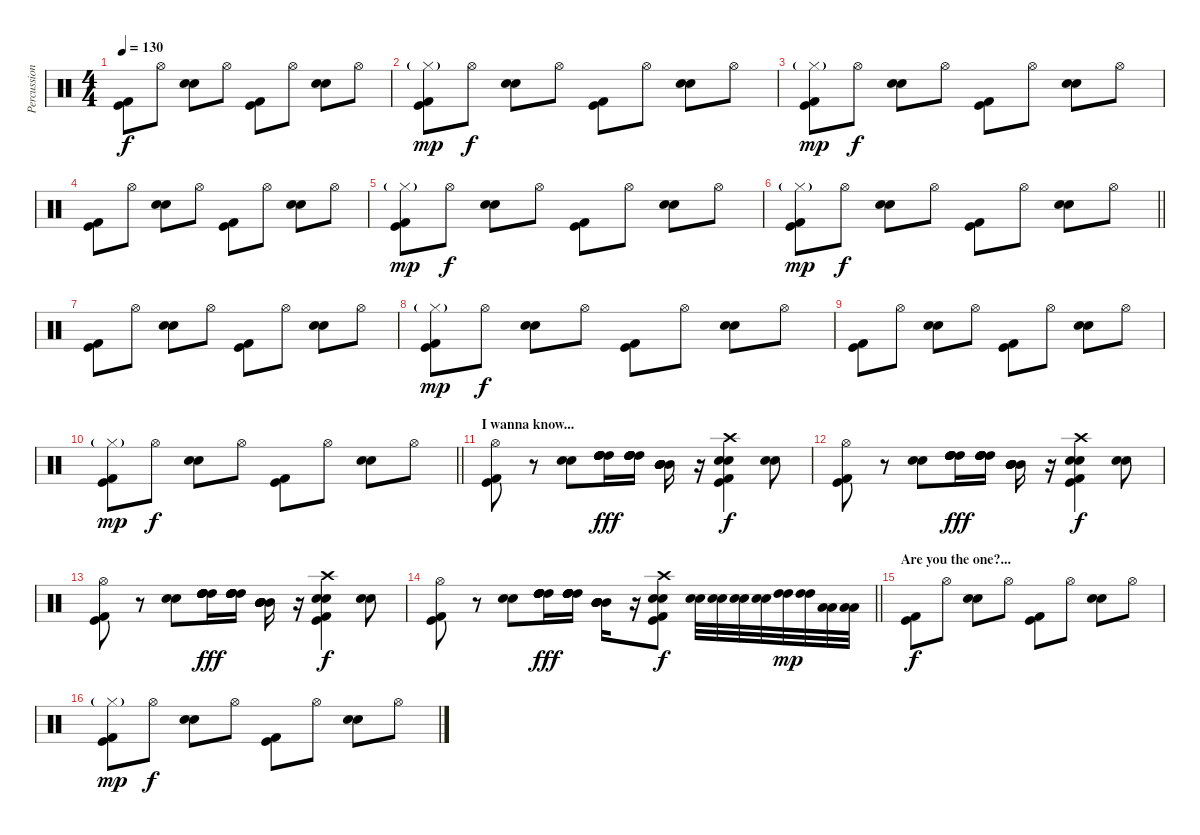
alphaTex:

\track ("Percussion" "Percussion") {instrument percussion}
\staff {score}
\articulation defaults
\ts (4 4)
\tempo 130
\clef neutral
\ks c
("Kick (hit) 2" "Kick (hit)").8{dy f} "Hi-Hat (open)".8 ("Electric Snare (hit)" "Snare (hit) 2").8 "Hi-Hat (open)".8 ("Kick (hit) 2" "Kick (hit)").8 "Hi-Hat (open)".8 ("Electric Snare (hit)" "Snare (hit) 2").8 "Hi-Hat (open)".8 |
("Kick (hit) 2" "Kick (hit)" "Hi-Hat (closed)"{g}).8{dy mp} "Hi-Hat (open)".8{dy f} ("Electric Snare (hit)" "Snare (hit) 2").8 "Hi-Hat (open)".8 ("Kick (hit) 2" "Kick (hit)").8 "Hi-Hat (open)".8 ("Electric Snare (hit)" "Snare (hit) 2").8 "Hi-Hat (open)".8 |
("Kick (hit) 2" "Kick (hit)" "Hi-Hat (closed)"{g}).8{dy mp} "Hi-Hat (open)".8{dy f} ("Electric Snare (hit)" "Snare (hit) 2").8 "Hi-Hat (open)".8 ("Kick (hit) 2" "Kick (hit)").8 "Hi-Hat (open)".8 ("Electric Snare (hit)" "Snare (hit) 2").8 "Hi-Hat (open)".8 |
("Kick (hit) 2" "Kick (hit)").8 "Hi-Hat (open)".8 ("Electric Snare (hit)" "Snare (hit) 2").8 "Hi-Hat (open)".8 ("Kick (hit) 2" "Kick (hit)").8 "Hi-Hat (open)".8 ("Electric Snare (hit)" "Snare (hit) 2").8 "Hi-Hat (open)".8 |
("Kick (hit) 2" "Kick (hit)" "Hi-Hat (closed)"{g}).8{dy mp} "Hi-Hat (open)".8{dy f} ("Electric Snare (hit)" "Snare (hit) 2").8 "Hi-Hat (open)".8 ("Kick (hit) 2" "Kick (hit)").8 "Hi-Hat (open)".8 ("Electric Snare (hit)" "Snare (hit) 2").8 "Hi-Hat (open)".8 |
\barLineRight lightlight
("Kick (hit) 2" "Kick (hit)" "Hi-Hat (closed)"{g}).8{dy mp} "Hi-Hat (open)".8{dy f} ("Electric Snare (hit)" "Snare (hit) 2").8 "Hi-Hat (open)".8 ("Kick (hit) 2" "Kick (hit)").8 "Hi-Hat (open)".8 ("Electric Snare (hit)" "Snare (hit) 2").8 "Hi-Hat (open)".8 |
("Kick (hit) 2" "Kick (hit)").8 "Hi-Hat (open)".8 ("Electric Snare (hit)" "Snare (hit) 2").8 "Hi-Hat (open)".8 ("Kick (hit) 2" "Kick (hit)").8 "Hi-Hat (open)".8 ("Electric Snare (hit)" "Snare (hit) 2").8 "Hi-Hat (open)".8 |
("Kick (hit) 2" "Kick (hit)" "Hi-Hat (closed)"{g}).8{dy mp} "Hi-Hat (open)".8{dy f} ("Electric Snare (hit)" "Snare (hit) 2").8 "Hi-Hat (open)".8 ("Kick (hit) 2" "Kick (hit)").8 "Hi-Hat (open)".8 ("Electric Snare (hit)" "Snare (hit) 2").8 "Hi-Hat (open)".8 |
("Kick (hit) 2" "Kick (hit)").8 "Hi-Hat (open)".8 ("Electric Snare (hit)" "Snare (hit) 2").8 "Hi-Hat (open)".8 ("Kick (hit) 2" "Kick (hit)").8 "Hi-Hat (open)".8 ("Electric Snare (hit)" "Snare (hit) 2").8 "Hi-Hat (open)".8 |
\barLineRight lightlight
("Kick (hit) 2" "Kick (hit)" "Hi-Hat (closed)"{g}).8{dy mp} "Hi-Hat (open)".8{dy f} ("Electric Snare (hit)" "Snare (hit) 2").8 "Hi-Hat (open)".8 ("Kick (hit) 2" "Kick (hit)").8 "Hi-Hat (open)".8 ("Electric Snare (hit)" "Snare (hit) 2").8 "Hi-Hat (open)".8 |
\section ("" "I wanna know...")
("Kick (hit) 2" "Kick (hit)" "Hi-Hat (open)").8 r.8 ("Snare (hit) 2" "Electric Snare (hit)").8 ("High Tom (hit)" "High Tom (hit)" "High Tom (hit)" "High Tom (hit)" "High Tom (hit)" "High Tom (hit)").16{dy fff} ("High Tom (hit)" "High Tom (hit)" "High Tom (hit)" "High Tom (hit)" "High Tom (hit)" "High Tom (hit)").16 ("Mid Tom (hit)" "Mid Tom (hit)" "Mid Tom (hit)" "Mid Tom (hit)" "Mid Tom (hit)" "Mid Tom (hit)").16 r.16 ("Kick (hit) 2" "Kick (hit)" "Snare (hit) 2" "Electric Snare (hit)" "Crash high (hit)").4{dy f} ("Snare (hit) 2" "Electric Snare (hit)").8 |
("Kick (hit) 2" "Kick (hit)" "Hi-Hat (open)").8 r.8 ("Snare (hit) 2" "Electric Snare (hit)").8 ("High Tom (hit)" "High Tom (hit)" "High Tom (hit)" "High Tom (hit)" "High Tom (hit)" "High Tom (hit)").16{dy fff} ("High Tom (hit)" "High Tom (hit)" "High Tom (hit)" "High Tom (hit)" "High Tom (hit)" "High Tom (hit)").16 ("Mid Tom (hit)" "Mid Tom (hit)" "Mid Tom (hit)" "Mid Tom (hit)" "Mid Tom (hit)" "Mid Tom (hit)").16 r.16 ("Kick (hit) 2" "Kick (hit)" "Snare (hit) 2" "Electric Snare (hit)" "Crash high (hit)").4{dy f} ("Snare (hit) 2" "Electric Snare (hit)").8 |
("Kick (hit) 2" "Kick (hit)" "Hi-Hat (open)").8 r.8 ("Snare (hit) 2" "Electric Snare (hit)").8 ("High Tom (hit)" "High Tom (hit)" "High Tom (hit)" "High Tom (hit)" "High Tom (hit)" "High Tom (hit)").16{dy fff} ("High Tom (hit)" "High Tom (hit)" "High Tom (hit)" "High Tom (hit)" "High Tom (hit)" "High Tom (hit)").16 ("Mid Tom (hit)" "Mid Tom (hit)" "Mid Tom (hit)" "Mid Tom (hit)" "Mid Tom (hit)" "Mid Tom (hit)").16 r.16 ("Kick (hit) 2" "Kick (hit)" "Snare (hit) 2" "Electric Snare (hit)" "Crash high (hit)").4{dy f} ("Snare (hit) 2" "Electric Snare (hit)").8 |
\barLineRight lightlight
("Kick (hit) 2" "Kick (hit)" "Hi-Hat (open)").8 r.8 ("Snare (hit) 2" "Electric Snare (hit)").8 ("High Tom (hit)" "High Tom (hit)" "High Tom (hit)" "High Tom (hit)" "High Tom (hit)" "High Tom (hit)").16{dy fff} ("High Tom (hit)" "High Tom (hit)" "High Tom (hit)" "High Tom (hit)" "High Tom (hit)" "High Tom (hit)").16 ("Mid Tom (hit)" "Mid Tom (hit)" "Mid Tom (hit)" "Mid Tom (hit)" "Mid Tom (hit)" "Mid Tom (hit)").16 r.16 ("Kick (hit) 2" "Kick (hit)" "Snare (hit) 2" "Electric Snare (hit)" "Crash high (hit)").8{dy f} ("Snare (hit) 2" "Electric Snare (hit)").32 ("Snare (hit) 2" "Electric Snare (hit)").32 ("Snare (hit) 2" "Electric Snare (hit)").32 ("Snare (hit) 2" "Electric Snare (hit)").32 ("High Tom (hit)" "High Tom (hit)").32{dy mp} ("High Tom (hit)" "High Tom (hit)").32 ("Low Tom (hit)" "Low Tom (hit)").32 ("Low Tom (hit)" "Low Tom (hit)").32 |
\section ("" "Are you the one?...")
("Kick (hit) 2" "Kick (hit)").8{dy f} "Hi-Hat (open)".8 ("Electric Snare (hit)" "Snare (hit) 2").8 "Hi-Hat (open)".8 ("Kick (hit) 2" "Kick (hit)").8 "Hi-Hat (open)".8 ("Electric Snare (hit)" "Snare (hit) 2").8 "Hi-Hat (open)".8 |
("Kick (hit) 2" "Kick (hit)" "Hi-Hat (closed)"{g}).8{dy mp} "Hi-Hat (open)".8{dy f} ("Electric Snare (hit)" "Snare (hit) 2").8 "Hi-Hat (open)".8 ("Kick (hit) 2" "Kick (hit)").8 "Hi-Hat (open)".8 ("Electric Snare (hit)" "Snare (hit) 2").8 "Hi-Hat (open)".8
